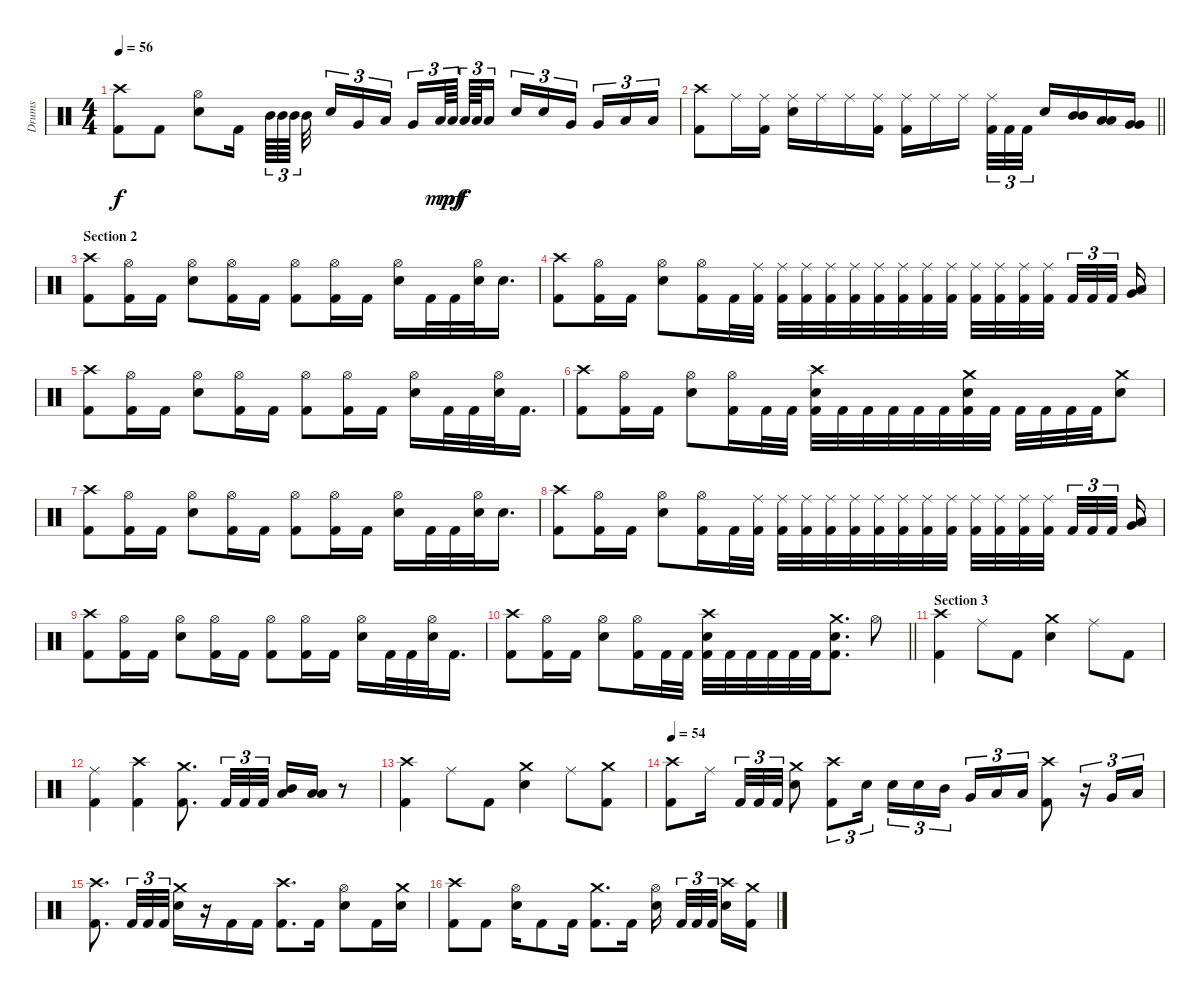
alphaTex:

\track ("Drums" "Drums") {instrument percussion}
\staff {score}
\articulation defaults
\ts (4 4)
\tempo 56
\clef neutral
\ks c
("Crash high (hit)" "Kick (hit) 2").8{dy f} "Kick (hit) 2".8 ("Hi-Hat (open)" "Electric Snare (hit)").8 "Kick (hit) 2".16{beam splitsecondary} "Mid Tom (hit)".64{tu (3 2)} "Mid Tom (hit)".64{tu (3 2)} "Mid Tom (hit)".64{tu (3 2) beam splitsecondary} "Mid Tom (hit)".32 "Electric Snare (hit)".16{tu (3 2)} "Very Low Tom (hit)".16{tu (3 2)} "Low Tom (hit)".16{tu (3 2) beam splitsecondary} "Very Low Tom (hit)".16{tu (3 2)} "Low Tom (hit)".64{tu (3 2) dy mp} "Low Tom (hit)".64{tu (3 2) dy mf beam splitsecondary} "Low Tom (hit)".64{tu (3 2) dy f} "Low Tom (hit)".64{tu (3 2)} "Low Floor Tom (hit)".16{tu (3 2)} "Electric Snare (hit)".16{tu (3 2)} "Electric Snare (hit)".16{tu (3 2)} "Very Low Tom (hit)".16{tu (3 2) beam splitsecondary} "Very Low Tom (hit)".16{tu (3 2)} "Low Floor Tom (hit)".16{tu (3 2)} "Low Floor Tom (hit)".16{tu (3 2)} |
\barLineRight lightlight
("Crash high (hit)" "Kick (hit) 2").8 "Ride (middle)".16 ("Ride (middle)" "Kick (hit) 2").16 ("Ride (middle)" "Electric Snare (hit)").16 "Ride (middle)".16 "Ride (middle)".16 ("Ride (middle)" "Kick (hit) 2").16 ("Ride (middle)" "Kick (hit) 2").16 "Ride (middle)".16 "Ride (middle)".16{beam splitsecondary} ("Ride (middle)" "Kick (hit) 2").32{tu (3 2)} "Kick (hit) 2".32{tu (3 2)} "Kick (hit) 2".32{tu (3 2)} "Electric Snare (hit)".16 ("Mid Tom (hit)" "Mid Tom (hit)").16{bu 60} ("Low Tom (hit)" "Low Tom (hit)").16{bu 60} ("Very Low Tom (hit)" "Very Low Tom (hit)").16{bu 60} |
\section ("" "Section 2")
("Crash high (hit)" "Kick (hit) 2").8 ("Hi-Hat (open)" "Kick (hit) 2").16 "Kick (hit) 2".16 ("Hi-Hat (open)" "Electric Snare (hit)").8 ("Hi-Hat (open)" "Kick (hit) 2").16 "Kick (hit) 2".16 ("Hi-Hat (open)" "Kick (hit) 2").8 ("Hi-Hat (open)" "Kick (hit) 2").16 "Kick (hit) 2".16 ("Hi-Hat (open)" "Electric Snare (hit)").16 "Kick (hit) 2".32 "Kick (hit) 2".32 ("Hi-Hat (open)" "Electric Snare (hit)").32 "Electric Snare (hit)".16{d} |
("Crash high (hit)" "Kick (hit) 2").8 ("Hi-Hat (open)" "Kick (hit) 2").16 "Kick (hit) 2".16 ("Hi-Hat (open)" "Electric Snare (hit)").8 ("Hi-Hat (open)" "Kick (hit) 2").16 "Kick (hit) 2".32 ("Ride (middle)" "Kick (hit) 2").32 ("Ride (middle)" "Kick (hit) 2").32 ("Ride (middle)" "Kick (hit) 2").32 ("Ride (middle)" "Kick (hit) 2").32 ("Ride (middle)" "Kick (hit) 2").32 ("Ride (middle)" "Kick (hit) 2").32 ("Ride (middle)" "Kick (hit) 2").32 ("Ride (middle)" "Kick (hit) 2").32 ("Ride (middle)" "Kick (hit) 2").32 ("Ride (middle)" "Kick (hit) 2").32 ("Ride (middle)" "Kick (hit) 2").32 ("Ride (middle)" "Kick (hit) 2").32 ("Ride (middle)" "Kick (hit) 2").32{beam splitsecondary} "Kick (hit) 2".32{tu (3 2)} "Kick (hit) 2".32{tu (3 2)} "Kick (hit) 2".32{tu (3 2) beam splitsecondary} ("Low Tom (hit)" "Very Low Tom (hit)").16 |
("Crash high (hit)" "Kick (hit) 2").8 ("Hi-Hat (open)" "Kick (hit) 2").16 "Kick (hit) 2".16 ("Hi-Hat (open)" "Electric Snare (hit)").8 ("Hi-Hat (open)" "Kick (hit) 2").16 "Kick (hit) 2".16 ("Hi-Hat (open)" "Kick (hit) 2").8 ("Hi-Hat (open)" "Kick (hit) 2").16 "Kick (hit) 2".16 ("Hi-Hat (open)" "Electric Snare (hit)").16 "Kick (hit) 2".32 "Kick (hit) 2".32 ("Hi-Hat (open)" "Electric Snare (hit)").32 "Kick (hit) 2".16{d} |
("Crash high (hit)" "Kick (hit) 2").8 ("Hi-Hat (open)" "Kick (hit) 2").16 "Kick (hit) 2".16 ("Hi-Hat (open)" "Electric Snare (hit)").8 ("Hi-Hat (open)" "Kick (hit) 2").16 "Kick (hit) 2".32 "Kick (hit) 2".32 ("Crash high (hit)" "Electric Snare (hit)" "Kick (hit) 2").32 "Kick (hit) 2".32 "Kick (hit) 2".32 "Kick (hit) 2".32 "Kick (hit) 2".32 "Kick (hit) 2".32 ("Crash medium (hit)" "Electric Snare (hit)" "Kick (hit) 2").32 "Kick (hit) 2".32 "Kick (hit) 2".32 "Kick (hit) 2".32 "Kick (hit) 2".32 "Kick (hit) 2".32 ("Crash medium (hit)" "Electric Snare (hit)").8 |
("Crash high (hit)" "Kick (hit) 2").8 ("Hi-Hat (open)" "Kick (hit) 2").16 "Kick (hit) 2".16 ("Hi-Hat (open)" "Electric Snare (hit)").8 ("Hi-Hat (open)" "Kick (hit) 2").16 "Kick (hit) 2".16 ("Hi-Hat (open)" "Kick (hit) 2").8 ("Hi-Hat (open)" "Kick (hit) 2").16 "Kick (hit) 2".16 ("Hi-Hat (open)" "Electric Snare (hit)").16 "Kick (hit) 2".32 "Kick (hit) 2".32 ("Hi-Hat (open)" "Electric Snare (hit)").32 "Electric Snare (hit)".16{d} |
("Crash high (hit)" "Kick (hit) 2").8 ("Hi-Hat (open)" "Kick (hit) 2").16 "Kick (hit) 2".16 ("Hi-Hat (open)" "Electric Snare (hit)").8 ("Hi-Hat (open)" "Kick (hit) 2").16 "Kick (hit) 2".32 ("Ride (middle)" "Kick (hit) 2").32 ("Ride (middle)" "Kick (hit) 2").32 ("Ride (middle)" "Kick (hit) 2").32 ("Ride (middle)" "Kick (hit) 2").32 ("Ride (middle)" "Kick (hit) 2").32 ("Ride (middle)" "Kick (hit) 2").32 ("Ride (middle)" "Kick (hit) 2").32 ("Ride (middle)" "Kick (hit) 2").32 ("Ride (middle)" "Kick (hit) 2").32 ("Ride (middle)" "Kick (hit) 2").32 ("Ride (middle)" "Kick (hit) 2").32 ("Ride (middle)" "Kick (hit) 2").32 ("Ride (middle)" "Kick (hit) 2").32{beam splitsecondary} "Kick (hit) 2".32{tu (3 2)} "Kick (hit) 2".32{tu (3 2)} "Kick (hit) 2".32{tu (3 2) beam splitsecondary} ("Low Tom (hit)" "Very Low Tom (hit)").16 |
("Crash high (hit)" "Kick (hit) 2").8 ("Hi-Hat (open)" "Kick (hit) 2").16 "Kick (hit) 2".16 ("Hi-Hat (open)" "Electric Snare (hit)").8 ("Hi-Hat (open)" "Kick (hit) 2").16 "Kick (hit) 2".16 ("Hi-Hat (open)" "Kick (hit) 2").8 ("Hi-Hat (open)" "Kick (hit) 2").16 "Kick (hit) 2".16 ("Hi-Hat (open)" "Electric Snare (hit)").16 "Kick (hit) 2".32 "Kick (hit) 2".32 ("Hi-Hat (open)" "Electric Snare (hit)").32 "Kick (hit) 2".16{d} |
\barLineRight lightlight
("Crash high (hit)" "Kick (hit) 2").8 ("Hi-Hat (open)" "Kick (hit) 2").16 "Kick (hit) 2".16 ("Hi-Hat (open)" "Electric Snare (hit)").8 ("Hi-Hat (open)" "Kick (hit) 2").16 "Kick (hit) 2".32 "Kick (hit) 2".32 ("Crash high (hit)" "Electric Snare (hit)" "Kick (hit) 2").32 "Kick (hit) 2".32 "Kick (hit) 2".32 "Kick (hit) 2".32 "Kick (hit) 2".32 "Kick (hit) 2".32 ("Crash medium (hit)" "Electric Snare (hit)" "Kick (hit) 2").8{d} "Hi-Hat (open)".8 |
\section ("" "Section 3")
("Crash high (hit)" "Kick (hit) 2").4 "Ride (middle)".8 "Kick (hit) 2".8 ("Crash medium (hit)" "Electric Snare (hit)").4 "Ride (middle)".8 "Kick (hit) 2".8 |
("Ride (middle)" "Kick (hit) 2").4 ("Crash high (hit)" "Kick (hit) 2").4 ("Crash medium (hit)" "Kick (hit) 2").8{d} "Kick (hit) 2".32{tu (3 2)} "Kick (hit) 2".32{tu (3 2)} "Kick (hit) 2".32{tu (3 2)} ("Mid Tom (hit)" "Low Floor Tom (hit)").16 ("Low Tom (hit)" "Low Floor Tom (hit)").16 r.8 |
("Crash high (hit)" "Kick (hit) 2").4 "Ride (middle)".8 "Kick (hit) 2".8 ("Crash medium (hit)" "Electric Snare (hit)").4 "Ride (middle)".8 ("Crash medium (hit)" "Kick (hit) 2").8 |
\tempo 54
("Crash high (hit)" "Kick (hit) 2").8 "Ride (middle)".16{beam splitsecondary} "Kick (hit) 2".32{tu (3 2)} "Kick (hit) 2".32{tu (3 2)} "Kick (hit) 2".32{tu (3 2)} ("Crash medium (hit)" "Electric Snare (hit)").8 ("Crash high (hit)" "Kick (hit) 2").8{tu (3 2)} "Electric Snare (hit)".16{tu (3 2)} "Electric Snare (hit)".16{tu (3 2)} "Electric Snare (hit)".16{tu (3 2)} "Mid Tom (hit)".16{tu (3 2) beam splitsecondary} "Very Low Tom (hit)".16{tu (3 2)} "Low Tom (hit)".16{tu (3 2)} "Low Tom (hit)".16{tu (3 2)} ("Crash high (hit)" "Kick (hit) 2").8 r.16{tu (3 2)} "Very Low Tom (hit)".16{tu (3 2)} "Low Floor Tom (hit)".16{tu (3 2)} |
("Crash high (hit)" "Kick (hit) 2").8{d} "Kick (hit) 2".32{tu (3 2)} "Kick (hit) 2".32{tu (3 2)} "Kick (hit) 2".32{tu (3 2)} ("Crash medium (hit)" "Electric Snare (hit)").16 r.16 "Kick (hit) 2".16 "Kick (hit) 2".16 ("Crash high (hit)" "Kick (hit) 2").8{d} "Kick (hit) 2".16 ("Hi-Hat (open)" "Electric Snare (hit)").8 "Kick (hit) 2".16 ("Crash medium (hit)" "Electric Snare (hit)").16 |
("Crash high (hit)" "Kick (hit) 2").8 "Kick (hit) 2".8 ("Hi-Hat (open)" "Electric Snare (hit)").16 "Kick (hit) 2".8 "Kick (hit) 2".16 ("Crash medium (hit)" "Kick (hit) 2").8{d} "Kick (hit) 2".16 ("Hi-Hat (open)" "Electric Snare (hit)").16{beam splitsecondary} "Kick (hit) 2".32{tu (3 2)} "Kick (hit) 2".32{tu (3 2)} "Kick (hit) 2".32{tu (3 2) beam splitsecondary} ("Crash high (hit)" "Electric Snare (hit)").16 ("Crash medium (hit)" "Kick (hit) 2").16
